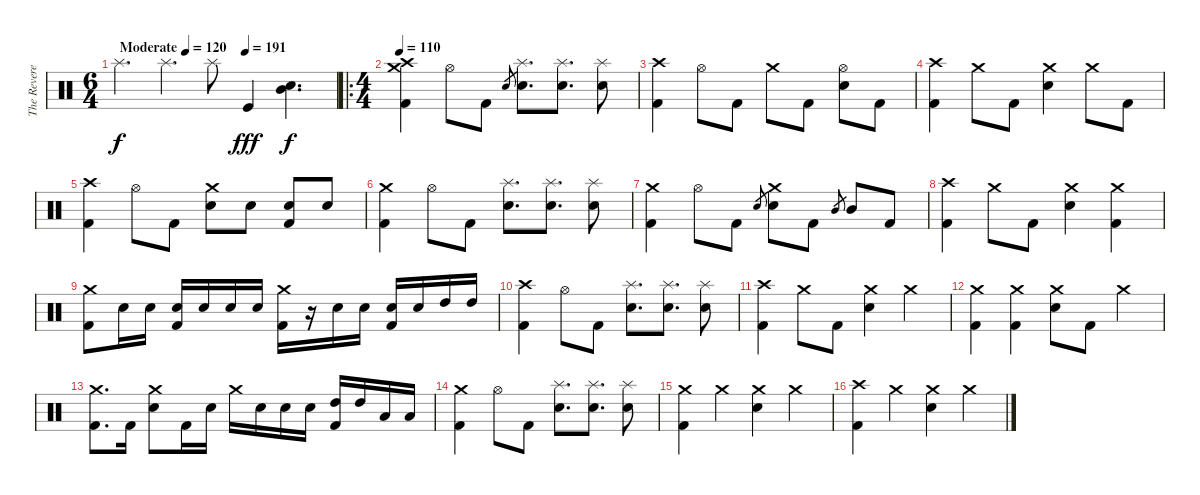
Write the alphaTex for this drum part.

\track ("The Reverend" "The Revere") {instrument percussion}
\staff {score}
\articulation defaults
\ts (6 4)
\tempo (120 "Moderate")
\tempo 137
\tempo (191 0.5833333333333334)
\tempo (120 "Moderate")
\clef neutral
\ks c "Splash (hit)".4{d dy f} "Splash (hit)".4{d} "Splash (hit)".8 "Kick (hit)".4{dy fff volume 16}
("Mid Tom (hit)" "Snare (hit) 2").4{d dy f} |
\ro
\ts (4 4)
\tempo 110
("Crash medium (hit)" "Crash high (hit)" "Kick (hit) 2").4 "Hi-Hat (open)".8 "Kick (hit) 2".8 "Electric Snare (hit)".8{gr} ("Splash (hit)" "Electric Snare (hit)").8{d} ("Splash (hit)" "Electric Snare (hit)").8{d} ("Splash (hit)" "Electric Snare (hit)").8 |
("Crash high (hit)" "Kick (hit) 2").4 "Hi-Hat (open)".8 "Kick (hit) 2".8 "Crash medium (hit)".8 "Kick (hit) 2".8 ("Hi-Hat (open)" "Electric Snare (hit)").8 "Kick (hit) 2".8 |
("Crash high (hit)" "Kick (hit) 2").4 "Crash medium (hit)".8 "Kick (hit) 2".8 ("Crash medium (hit)" "Electric Snare (hit)").4 "Crash medium (hit)".8 "Kick (hit) 2".8 |
("Crash high (hit)" "Kick (hit) 2").4 "Hi-Hat (open)".8 "Kick (hit) 2".8 ("Crash medium (hit)" "Electric Snare (hit)").8 "Electric Snare (hit)".8 ("Electric Snare (hit)" "Kick (hit) 2").8 "Electric Snare (hit)".8 |
("Crash medium (hit)" "Kick (hit) 2").4 "Hi-Hat (open)".8 "Kick (hit) 2".8 ("Splash (hit)" "Electric Snare (hit)").8{d} ("Splash (hit)" "Electric Snare (hit)").8{d} ("Splash (hit)" "Electric Snare (hit)").8 |
("Crash medium (hit)" "Kick (hit) 2").4 "Hi-Hat (open)".8 "Kick (hit) 2".8 "Electric Snare (hit)".8{gr} ("Crash medium (hit)" "Electric Snare (hit)").8 "Kick (hit) 2".8 "Mid Tom (hit)".8{gr} "Mid Tom (hit)".8 "Kick (hit) 2".8 |
("Crash high (hit)" "Kick (hit) 2").4 "Crash medium (hit)".8 "Kick (hit) 2".8 ("Crash medium (hit)" "Electric Snare (hit)").4 ("Crash medium (hit)" "Kick (hit) 2").4 |
("Crash medium (hit)" "Kick (hit) 2").8 "Electric Snare (hit)".16 "Electric Snare (hit)".16 ("Electric Snare (hit)" "Kick (hit) 2").16 "Electric Snare (hit)".16 "Electric Snare (hit)".16 "Electric Snare (hit)".16 ("Crash medium (hit)" "Kick (hit) 2").16 r.16 "Electric Snare (hit)".16 "Electric Snare (hit)".16 ("Electric Snare (hit)" "Kick (hit) 2").16 "Electric Snare (hit)".16 "High Tom (hit)".16 "High Tom (hit)".16 |
("Crash high (hit)" "Kick (hit) 2").4 "Hi-Hat (open)".8 "Kick (hit) 2".8 ("Splash (hit)" "Electric Snare (hit)").8{d} ("Splash (hit)" "Electric Snare (hit)").8{d} ("Splash (hit)" "Electric Snare (hit)").8 |
("Crash high (hit)" "Kick (hit) 2").4 "Crash medium (hit)".8 "Kick (hit) 2".8 ("Crash medium (hit)" "Electric Snare (hit)").4 "Crash medium (hit)".4 |
("Crash medium (hit)" "Kick (hit) 2").4 ("Crash medium (hit)" "Kick (hit) 2").4 ("Crash medium (hit)" "Electric Snare (hit)").8 "Kick (hit) 2".8 "Crash medium (hit)".4 |
("Crash medium (hit)" "Kick (hit) 2").8{d} "Kick (hit) 2".16 ("Crash medium (hit)" "Electric Snare (hit)").8 "Kick (hit) 2".16 "Electric Snare (hit)".16 "Crash medium (hit)".16 "Electric Snare (hit)".16 "Electric Snare (hit)".16 "Electric Snare (hit)".16 ("High Tom (hit)" "Kick (hit) 2").16 "High Tom (hit)".16 "Low Tom (hit)".16 "Low Tom (hit)".16 |
("Crash medium (hit)" "Kick (hit) 2").4 "Hi-Hat (open)".8 "Kick (hit) 2".8 ("Splash (hit)" "Electric Snare (hit)").8{d} ("Splash (hit)" "Electric Snare (hit)").8{d} ("Splash (hit)" "Electric Snare (hit)").8 |
("Crash medium (hit)" "Kick (hit) 2").4 "Crash medium (hit)".4 ("Crash medium (hit)" "Electric Snare (hit)").4 "Crash medium (hit)".4 |
("Crash high (hit)" "Kick (hit) 2").4 "Crash medium (hit)".4 ("Crash medium (hit)" "Electric Snare (hit)").4 "Crash medium (hit)".4
